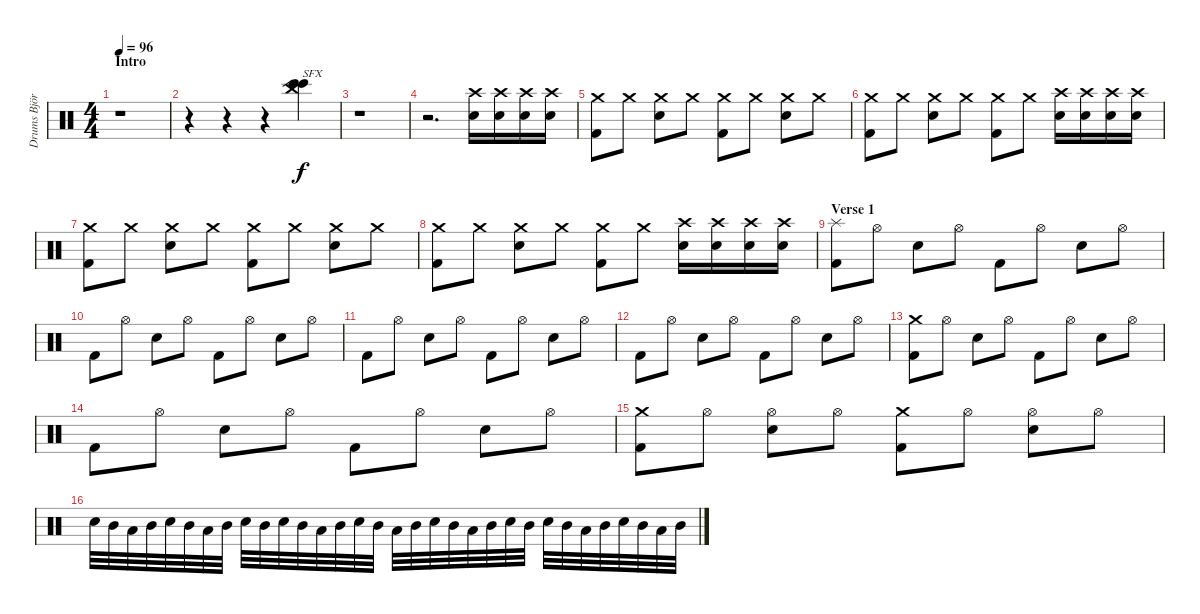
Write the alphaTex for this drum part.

\track ("Drums Björn Fryklund" "Drums Björ") {instrument percussion}
\staff {score}
\articulation defaults
\ts (4 4)
\section ("" "Intro")
\tempo 96
\clef neutral
\ks c
r.1{dy f} |
r.4 r.4 r.4 ("Bongo High (hit)" "Bongo High (hit)" "China (hit)").4{txt "SFX"} |
r.1 |
r.2{d} ("Crash high (hit)" "Snare (hit) 2").16 ("Crash high (hit)" "Snare (hit) 2").16 ("Crash high (hit)" "Snare (hit) 2").16 ("Crash high (hit)" "Snare (hit) 2").16 |
("Crash medium (hit)" "Kick (hit) 2").8 "Crash medium (hit)".8 ("Crash medium (hit)" "Snare (hit) 2").8 "Crash medium (hit)".8 ("Crash medium (hit)" "Kick (hit) 2").8 "Crash medium (hit)".8 ("Crash medium (hit)" "Snare (hit) 2").8 "Crash medium (hit)".8 |
("Crash medium (hit)" "Kick (hit) 2").8 "Crash medium (hit)".8 ("Crash medium (hit)" "Snare (hit) 2").8 "Crash medium (hit)".8 ("Crash medium (hit)" "Kick (hit) 2").8 "Crash medium (hit)".8 ("Crash high (hit)" "Snare (hit) 2").16 ("Crash high (hit)" "Snare (hit) 2").16 ("Crash high (hit)" "Snare (hit) 2").16 ("Crash high (hit)" "Snare (hit) 2").16 |
("Crash medium (hit)" "Kick (hit) 2").8 "Crash medium (hit)".8 ("Crash medium (hit)" "Snare (hit) 2").8 "Crash medium (hit)".8 ("Crash medium (hit)" "Kick (hit) 2").8 "Crash medium (hit)".8 ("Crash medium (hit)" "Snare (hit) 2").8 "Crash medium (hit)".8 |
("Crash medium (hit)" "Kick (hit) 2").8 "Crash medium (hit)".8 ("Crash medium (hit)" "Snare (hit) 2").8 "Crash medium (hit)".8 ("Crash medium (hit)" "Kick (hit) 2").8 "Crash medium (hit)".8 ("Crash high (hit)" "Snare (hit) 2").16 ("Crash high (hit)" "Snare (hit) 2").16 ("Crash high (hit)" "Snare (hit) 2").16 ("Crash high (hit)" "Snare (hit) 2").16 |
\section ("" "Verse 1")
("Splash (hit)" "Kick (hit) 2").8 "Hi-Hat (open)".8 "Snare (hit) 2".8 "Hi-Hat (open)".8 "Kick (hit) 2".8 "Hi-Hat (open)".8 "Snare (hit) 2".8 "Hi-Hat (open)".8 |
"Kick (hit) 2".8 "Hi-Hat (open)".8 "Snare (hit) 2".8 "Hi-Hat (open)".8 "Kick (hit) 2".8 "Hi-Hat (open)".8 "Snare (hit) 2".8 "Hi-Hat (open)".8 |
"Kick (hit) 2".8 "Hi-Hat (open)".8 "Snare (hit) 2".8 "Hi-Hat (open)".8 "Kick (hit) 2".8 "Hi-Hat (open)".8 "Snare (hit) 2".8 "Hi-Hat (open)".8 |
"Kick (hit) 2".8 "Hi-Hat (open)".8 "Snare (hit) 2".8 "Hi-Hat (open)".8 "Kick (hit) 2".8 "Hi-Hat (open)".8 "Snare (hit) 2".8 "Hi-Hat (open)".8 |
("Crash medium (hit)" "Kick (hit) 2").8 "Hi-Hat (open)".8 "Snare (hit) 2".8 "Hi-Hat (open)".8 "Kick (hit) 2".8 "Hi-Hat (open)".8 "Snare (hit) 2".8 "Hi-Hat (open)".8 |
"Kick (hit) 2".8 "Hi-Hat (open)".8 "Snare (hit) 2".8 "Hi-Hat (open)".8 "Kick (hit) 2".8 "Hi-Hat (open)".8 "Snare (hit) 2".8 "Hi-Hat (open)".8 |
("Crash medium (hit)" "Kick (hit) 2").8 "Hi-Hat (open)".8 ("Hi-Hat (open)" "Snare (hit) 2").8 "Hi-Hat (open)".8 ("Crash medium (hit)" "Kick (hit) 2").8 "Hi-Hat (open)".8 ("Hi-Hat (open)" "Snare (hit) 2").8 "Hi-Hat (open)".8 |
"Snare (hit) 2".32 "Mid Tom (hit)".32 "Low Tom (hit)".32 "Mid Tom (hit)".32 "Snare (hit) 2".32 "Mid Tom (hit)".32 "Low Tom (hit)".32 "Mid Tom (hit)".32 "Snare (hit) 2".32 "Mid Tom (hit)".32 "Snare (hit) 2".32 "Mid Tom (hit)".32 "Low Tom (hit)".32 "Mid Tom (hit)".32 "Snare (hit) 2".32 "Mid Tom (hit)".32 "Low Tom (hit)".32 "Mid Tom (hit)".32 "Snare (hit) 2".32 "Mid Tom (hit)".32 "Low Tom (hit)".32 "Mid Tom (hit)".32 "Snare (hit) 2".32 "Mid Tom (hit)".32 "Snare (hit) 2".32 "Mid Tom (hit)".32 "Low Tom (hit)".32 "Mid Tom (hit)".32 "Snare (hit) 2".32 "Mid Tom (hit)".32 "Low Tom (hit)".32 "Mid Tom (hit)".32
